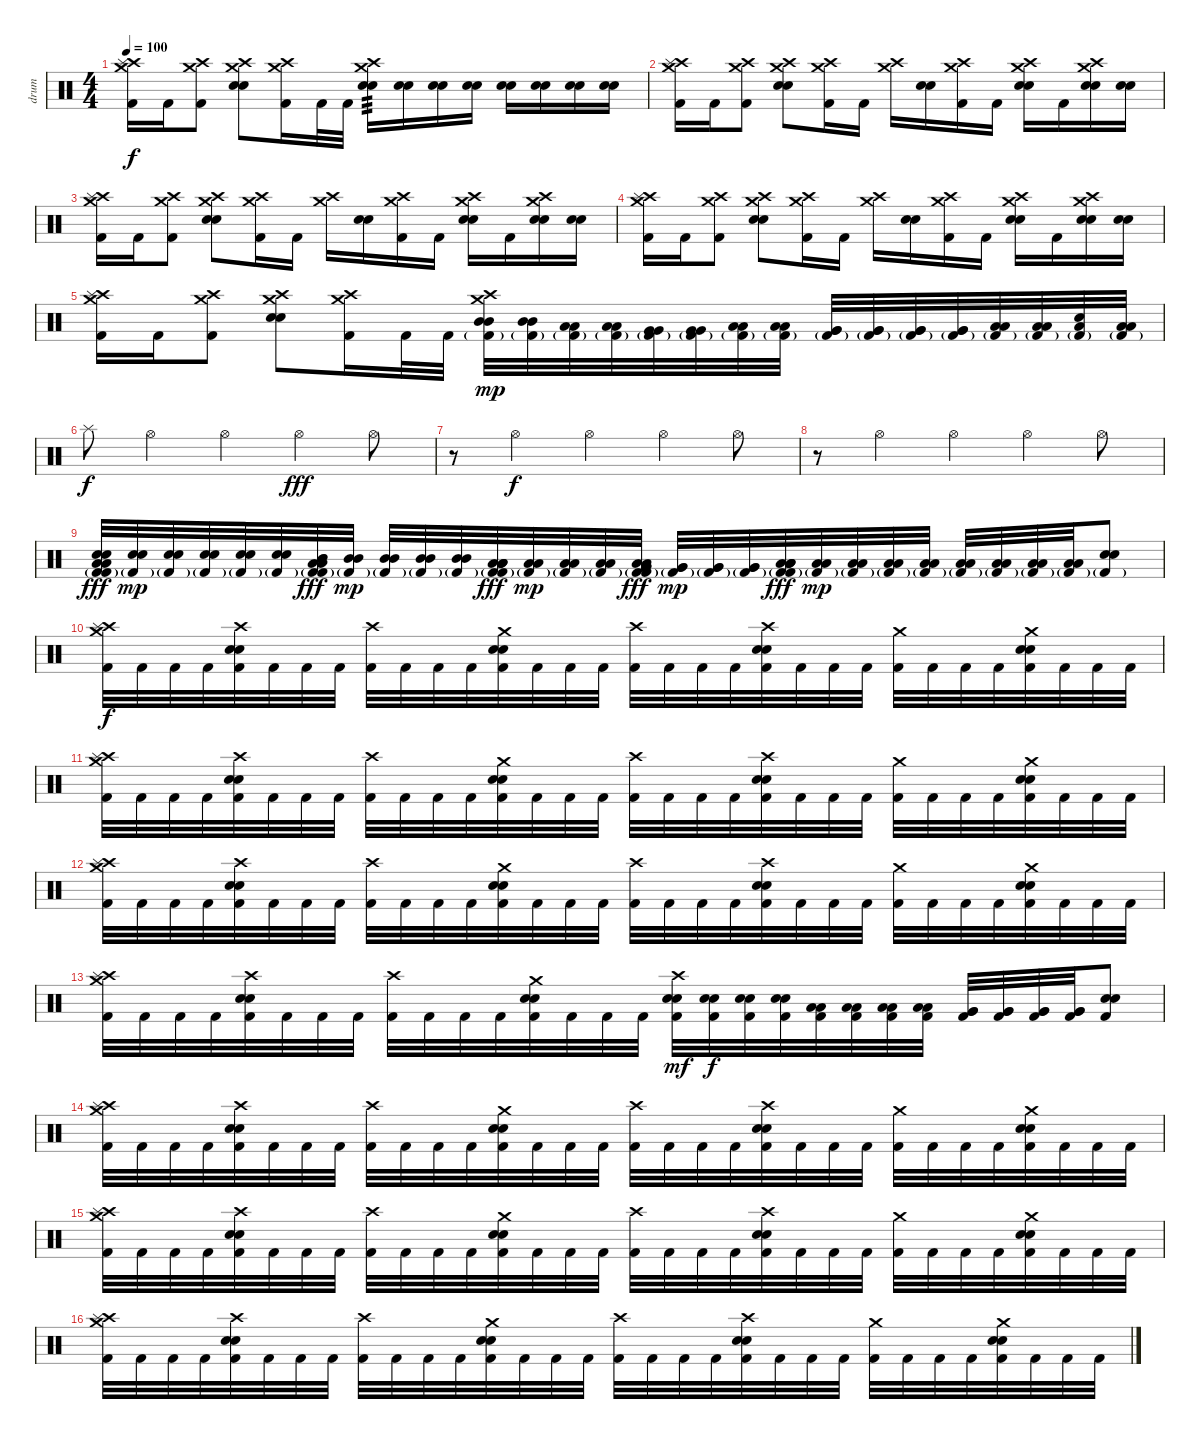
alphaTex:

\track ("drum" "drum") {instrument percussion}
\staff {score}
\articulation defaults
\ts (4 4)
\tempo 100
\clef neutral
\ks c
("Crash medium (hit)" "Crash high (hit)" "Splash (hit)" "Kick (hit) 2").16{dy f} "Kick (hit) 2".16 ("Crash medium (hit)" "Crash high (hit)" "Kick (hit) 2").8 ("Crash medium (hit)" "Crash high (hit)" "Electric Snare (hit)" "Snare (hit) 2").8 ("Crash medium (hit)" "Crash high (hit)" "Kick (hit) 2").16 "Kick (hit) 2".32 "Kick (hit) 2".32 ("Crash medium (hit)" "Crash high (hit)" "Electric Snare (hit)" "Snare (hit) 2").16{tp 3} ("Electric Snare (hit)" "Snare (hit) 2").16 ("Electric Snare (hit)" "Snare (hit) 2").16 ("Electric Snare (hit)" "Snare (hit) 2").16 ("Electric Snare (hit)" "Snare (hit) 2").16 ("Electric Snare (hit)" "Snare (hit) 2").16 ("Electric Snare (hit)" "Snare (hit) 2").16 ("Electric Snare (hit)" "Snare (hit) 2").16 |
("Crash medium (hit)" "Crash high (hit)" "Splash (hit)" "Kick (hit) 2").16 "Kick (hit) 2".16 ("Crash medium (hit)" "Crash high (hit)" "Kick (hit) 2").8 ("Crash medium (hit)" "Crash high (hit)" "Electric Snare (hit)" "Snare (hit) 2").8 ("Crash medium (hit)" "Crash high (hit)" "Kick (hit) 2").16 "Kick (hit) 2".16 ("Crash medium (hit)" "Crash high (hit)").16 ("Electric Snare (hit)" "Snare (hit) 2").16 ("Crash medium (hit)" "Crash high (hit)" "Kick (hit) 2").16 "Kick (hit) 2".16 ("Crash medium (hit)" "Crash high (hit)" "Electric Snare (hit)" "Snare (hit) 2").16 "Kick (hit) 2".16 ("Crash medium (hit)" "Crash high (hit)" "Electric Snare (hit)" "Snare (hit) 2").16 ("Electric Snare (hit)" "Snare (hit) 2").16 |
("Crash medium (hit)" "Crash high (hit)" "Splash (hit)" "Kick (hit) 2").16 "Kick (hit) 2".16 ("Crash medium (hit)" "Crash high (hit)" "Kick (hit) 2").8 ("Crash medium (hit)" "Crash high (hit)" "Electric Snare (hit)" "Snare (hit) 2").8 ("Crash medium (hit)" "Crash high (hit)" "Kick (hit) 2").16 "Kick (hit) 2".16 ("Crash medium (hit)" "Crash high (hit)").16 ("Electric Snare (hit)" "Snare (hit) 2").16 ("Crash medium (hit)" "Crash high (hit)" "Kick (hit) 2").16 "Kick (hit) 2".16 ("Crash medium (hit)" "Crash high (hit)" "Electric Snare (hit)" "Snare (hit) 2").16 "Kick (hit) 2".16 ("Crash medium (hit)" "Crash high (hit)" "Electric Snare (hit)" "Snare (hit) 2").16 ("Electric Snare (hit)" "Snare (hit) 2").16 |
("Crash medium (hit)" "Crash high (hit)" "Splash (hit)" "Kick (hit) 2").16 "Kick (hit) 2".16 ("Crash medium (hit)" "Crash high (hit)" "Kick (hit) 2").8 ("Crash medium (hit)" "Crash high (hit)" "Electric Snare (hit)" "Snare (hit) 2").8 ("Crash medium (hit)" "Crash high (hit)" "Kick (hit) 2").16 "Kick (hit) 2".16 ("Crash medium (hit)" "Crash high (hit)").16 ("Electric Snare (hit)" "Snare (hit) 2").16 ("Crash medium (hit)" "Crash high (hit)" "Kick (hit) 2").16 "Kick (hit) 2".16 ("Crash medium (hit)" "Crash high (hit)" "Electric Snare (hit)" "Snare (hit) 2").16 "Kick (hit) 2".16 ("Crash medium (hit)" "Crash high (hit)" "Electric Snare (hit)" "Snare (hit) 2").16 ("Electric Snare (hit)" "Snare (hit) 2").16 |
("Crash medium (hit)" "Crash high (hit)" "Splash (hit)" "Kick (hit) 2").16 "Kick (hit) 2".16 ("Crash medium (hit)" "Crash high (hit)" "Kick (hit) 2").8 ("Crash medium (hit)" "Crash high (hit)" "Electric Snare (hit)" "Snare (hit) 2").8 ("Crash medium (hit)" "Crash high (hit)" "Kick (hit) 2").16 "Kick (hit) 2".32 "Kick (hit) 2".32 ("Crash medium (hit)" "Mid Tom (hit)" "Mid Tom (hit)" "Crash high (hit)" "Kick (hit) 2"{g}).32{dy mp} ("Mid Tom (hit)" "Mid Tom (hit)" "Kick (hit) 2"{g}).32 ("Low Tom (hit)" "Low Tom (hit)" "Kick (hit) 2"{g}).32 ("Low Tom (hit)" "Low Tom (hit)" "Kick (hit) 2"{g}).32 ("Very Low Tom (hit)" "Very Low Tom (hit)" "Kick (hit) 2"{g}).32 ("Very Low Tom (hit)" "Very Low Tom (hit)" "Kick (hit) 2"{g}).32 ("Low Tom (hit)" "Low Tom (hit)" "Kick (hit) 2"{g}).32 ("Low Tom (hit)" "Low Tom (hit)" "Kick (hit) 2"{g}).32 ("Very Low Tom (hit)" "Very Low Tom (hit)" "Kick (hit) 2"{g}).32 ("Very Low Tom (hit)" "Very Low Tom (hit)" "Kick (hit) 2"{g}).32 ("Very Low Tom (hit)" "Very Low Tom (hit)" "Kick (hit) 2"{g}).32 ("Very Low Tom (hit)" "Very Low Tom (hit)" "Kick (hit) 2"{g}).32 ("Low Floor Tom (hit)" "Low Floor Tom (hit)" "Kick (hit) 2"{g}).32 ("Low Floor Tom (hit)" "Low Floor Tom (hit)" "Kick (hit) 2"{g}).32 ("Snare (hit)" "Low Floor Tom (hit)" "Kick (hit) 2"{g}).32 ("Low Floor Tom (hit)" "Low Floor Tom (hit)" "Kick (hit) 2"{g}).32 |
"Splash (hit)".8{dy f} "Hi-Hat (open)".4 "Hi-Hat (open)".4 "Hi-Hat (open)".4{dy fff} "Hi-Hat (open)".8 |
r.8 "Hi-Hat (open)".4{dy f} "Hi-Hat (open)".4 "Hi-Hat (open)".4 "Hi-Hat (open)".8 |
r.8 "Hi-Hat (open)".4 "Hi-Hat (open)".4 "Hi-Hat (open)".4 "Hi-Hat (open)".8 |
("Low Floor Tom (hit)" "Low Tom (hit)" "Electric Snare (hit)" "Snare (hit) 2" "Kick (hit) 2"{g} "Kick (hit) 2").32{dy fff} ("Electric Snare (hit)" "Snare (hit) 2" "Kick (hit) 2"{g}).32{dy mp} ("Electric Snare (hit)" "Snare (hit) 2" "Kick (hit) 2"{g}).32 ("Electric Snare (hit)" "Snare (hit) 2" "Kick (hit) 2"{g}).32 ("Electric Snare (hit)" "Snare (hit) 2" "Kick (hit) 2"{g}).32 ("Electric Snare (hit)" "Snare (hit) 2" "Kick (hit) 2"{g}).32 ("Low Floor Tom (hit)" "Low Tom (hit)" "Mid Tom (hit)" "Mid Tom (hit)" "Kick (hit) 2"{g} "Kick (hit) 2").32{dy fff} ("Mid Tom (hit)" "Mid Tom (hit)" "Kick (hit) 2"{g}).32{dy mp} ("Mid Tom (hit)" "Mid Tom (hit)" "Kick (hit) 2"{g}).32 ("Mid Tom (hit)" "Mid Tom (hit)" "Kick (hit) 2"{g}).32 ("Mid Tom (hit)" "Mid Tom (hit)" "Kick (hit) 2"{g}).32 ("Low Floor Tom (hit)" "Low Tom (hit)" "Low Tom (hit)" "Low Tom (hit)" "Kick (hit) 2"{g} "Kick (hit) 2").32{dy fff} ("Low Tom (hit)" "Low Tom (hit)" "Kick (hit) 2"{g}).32{dy mp} ("Low Tom (hit)" "Low Tom (hit)" "Kick (hit) 2"{g}).32 ("Low Tom (hit)" "Low Tom (hit)" "Kick (hit) 2"{g}).32 ("Low Floor Tom (hit)" "Low Tom (hit)" "Very Low Tom (hit)" "Very Low Tom (hit)" "Kick (hit) 2"{g} "Kick (hit) 2").32{dy fff} ("Very Low Tom (hit)" "Very Low Tom (hit)" "Kick (hit) 2"{g}).32{dy mp} ("Very Low Tom (hit)" "Very Low Tom (hit)" "Kick (hit) 2"{g}).32 ("Very Low Tom (hit)" "Very Low Tom (hit)" "Kick (hit) 2"{g}).32 ("Low Tom (hit)" "Low Tom (hit)" "Low Floor Tom (hit)" "Low Floor Tom (hit)" "Kick (hit) 2"{g} "Kick (hit) 2").32{dy fff} ("Low Floor Tom (hit)" "Low Floor Tom (hit)" "Kick (hit) 2"{g}).32{dy mp} ("Low Floor Tom (hit)" "Low Floor Tom (hit)" "Kick (hit) 2"{g}).32 ("Low Floor Tom (hit)" "Low Floor Tom (hit)" "Kick (hit) 2"{g}).32 ("Low Floor Tom (hit)" "Low Floor Tom (hit)" "Kick (hit) 2"{g}).32 ("Low Floor Tom (hit)" "Low Floor Tom (hit)" "Kick (hit) 2"{g}).32 ("Low Floor Tom (hit)" "Low Floor Tom (hit)" "Kick (hit) 2"{g}).32 ("Low Floor Tom (hit)" "Low Floor Tom (hit)" "Kick (hit) 2"{g}).32 ("Low Floor Tom (hit)" "Low Floor Tom (hit)" "Kick (hit) 2"{g}).32 ("Electric Snare (hit)" "Snare (hit) 2" "Kick (hit) 2"{g}).8{bd 60} |
("Crash medium (hit)" "Crash high (hit)" "Splash (hit)" "Kick (hit) 2").32{dy f} "Kick (hit) 2".32 "Kick (hit) 2".32 "Kick (hit) 2".32 ("Crash high (hit)" "Electric Snare (hit)" "Snare (hit) 2" "Kick (hit) 2").32 "Kick (hit) 2".32 "Kick (hit) 2".32 "Kick (hit) 2".32 ("Crash high (hit)" "Kick (hit) 2").32 "Kick (hit) 2".32 "Kick (hit) 2".32 "Kick (hit) 2".32 ("Crash medium (hit)" "Electric Snare (hit)" "Snare (hit) 2" "Kick (hit) 2").32 "Kick (hit) 2".32 "Kick (hit) 2".32 "Kick (hit) 2".32 ("Crash high (hit)" "Kick (hit) 2").32 "Kick (hit) 2".32 "Kick (hit) 2".32 "Kick (hit) 2".32 ("Crash high (hit)" "Electric Snare (hit)" "Snare (hit) 2" "Kick (hit) 2").32 "Kick (hit) 2".32 "Kick (hit) 2".32 "Kick (hit) 2".32 ("Crash medium (hit)" "Kick (hit) 2").32 "Kick (hit) 2".32 "Kick (hit) 2".32 "Kick (hit) 2".32 ("Crash medium (hit)" "Electric Snare (hit)" "Snare (hit) 2" "Kick (hit) 2").32 "Kick (hit) 2".32 "Kick (hit) 2".32 "Kick (hit) 2".32 |
("Crash medium (hit)" "Crash high (hit)" "Splash (hit)" "Kick (hit) 2").32 "Kick (hit) 2".32 "Kick (hit) 2".32 "Kick (hit) 2".32 ("Crash high (hit)" "Electric Snare (hit)" "Snare (hit) 2" "Kick (hit) 2").32 "Kick (hit) 2".32 "Kick (hit) 2".32 "Kick (hit) 2".32 ("Crash high (hit)" "Kick (hit) 2").32 "Kick (hit) 2".32 "Kick (hit) 2".32 "Kick (hit) 2".32 ("Crash medium (hit)" "Electric Snare (hit)" "Snare (hit) 2" "Kick (hit) 2").32 "Kick (hit) 2".32 "Kick (hit) 2".32 "Kick (hit) 2".32 ("Crash high (hit)" "Kick (hit) 2").32 "Kick (hit) 2".32 "Kick (hit) 2".32 "Kick (hit) 2".32 ("Crash high (hit)" "Electric Snare (hit)" "Snare (hit) 2" "Kick (hit) 2").32 "Kick (hit) 2".32 "Kick (hit) 2".32 "Kick (hit) 2".32 ("Crash medium (hit)" "Kick (hit) 2").32 "Kick (hit) 2".32 "Kick (hit) 2".32 "Kick (hit) 2".32 ("Crash medium (hit)" "Electric Snare (hit)" "Snare (hit) 2" "Kick (hit) 2").32 "Kick (hit) 2".32 "Kick (hit) 2".32 "Kick (hit) 2".32 |
("Crash medium (hit)" "Crash high (hit)" "Splash (hit)" "Kick (hit) 2").32 "Kick (hit) 2".32 "Kick (hit) 2".32 "Kick (hit) 2".32 ("Crash high (hit)" "Electric Snare (hit)" "Snare (hit) 2" "Kick (hit) 2").32 "Kick (hit) 2".32 "Kick (hit) 2".32 "Kick (hit) 2".32 ("Crash high (hit)" "Kick (hit) 2").32 "Kick (hit) 2".32 "Kick (hit) 2".32 "Kick (hit) 2".32 ("Crash medium (hit)" "Electric Snare (hit)" "Snare (hit) 2" "Kick (hit) 2").32 "Kick (hit) 2".32 "Kick (hit) 2".32 "Kick (hit) 2".32 ("Crash high (hit)" "Kick (hit) 2").32 "Kick (hit) 2".32 "Kick (hit) 2".32 "Kick (hit) 2".32 ("Crash high (hit)" "Electric Snare (hit)" "Snare (hit) 2" "Kick (hit) 2").32 "Kick (hit) 2".32 "Kick (hit) 2".32 "Kick (hit) 2".32 ("Crash medium (hit)" "Kick (hit) 2").32 "Kick (hit) 2".32 "Kick (hit) 2".32 "Kick (hit) 2".32 ("Crash medium (hit)" "Electric Snare (hit)" "Snare (hit) 2" "Kick (hit) 2").32 "Kick (hit) 2".32 "Kick (hit) 2".32 "Kick (hit) 2".32 |
("Crash medium (hit)" "Crash high (hit)" "Splash (hit)" "Kick (hit) 2").32 "Kick (hit) 2".32 "Kick (hit) 2".32 "Kick (hit) 2".32 ("Crash high (hit)" "Electric Snare (hit)" "Snare (hit) 2" "Kick (hit) 2").32 "Kick (hit) 2".32 "Kick (hit) 2".32 "Kick (hit) 2".32 ("Crash high (hit)" "Kick (hit) 2").32 "Kick (hit) 2".32 "Kick (hit) 2".32 "Kick (hit) 2".32 ("Crash medium (hit)" "Electric Snare (hit)" "Snare (hit) 2" "Kick (hit) 2").32 "Kick (hit) 2".32 "Kick (hit) 2".32 "Kick (hit) 2".32 ("Crash high (hit)" "Electric Snare (hit)" "Snare (hit) 2" "Kick (hit) 2").32{dy mf} ("Electric Snare (hit)" "Snare (hit) 2" "Kick (hit) 2").32{dy f} ("Electric Snare (hit)" "Snare (hit) 2" "Kick (hit) 2").32 ("Electric Snare (hit)" "Snare (hit) 2" "Kick (hit) 2").32 ("Low Tom (hit)" "Low Tom (hit)" "Kick (hit) 2").32 ("Low Tom (hit)" "Low Tom (hit)" "Kick (hit) 2").32 ("Low Tom (hit)" "Low Tom (hit)" "Kick (hit) 2").32 ("Low Tom (hit)" "Low Tom (hit)" "Kick (hit) 2").32 ("Very Low Tom (hit)" "Very Low Tom (hit)" "Kick (hit) 2").32 ("Very Low Tom (hit)" "Very Low Tom (hit)" "Kick (hit) 2").32 ("Very Low Tom (hit)" "Very Low Tom (hit)" "Kick (hit) 2").32 ("Very Low Tom (hit)" "Very Low Tom (hit)" "Kick (hit) 2").32 ("Electric Snare (hit)" "Snare (hit) 2" "Kick (hit) 2").8{bd 60} |
("Crash medium (hit)" "Crash high (hit)" "Splash (hit)" "Kick (hit) 2").32 "Kick (hit) 2".32 "Kick (hit) 2".32 "Kick (hit) 2".32 ("Crash high (hit)" "Electric Snare (hit)" "Snare (hit) 2" "Kick (hit) 2").32 "Kick (hit) 2".32 "Kick (hit) 2".32 "Kick (hit) 2".32 ("Crash high (hit)" "Kick (hit) 2").32 "Kick (hit) 2".32 "Kick (hit) 2".32 "Kick (hit) 2".32 ("Crash medium (hit)" "Electric Snare (hit)" "Snare (hit) 2" "Kick (hit) 2").32 "Kick (hit) 2".32 "Kick (hit) 2".32 "Kick (hit) 2".32 ("Crash high (hit)" "Kick (hit) 2").32 "Kick (hit) 2".32 "Kick (hit) 2".32 "Kick (hit) 2".32 ("Crash high (hit)" "Electric Snare (hit)" "Snare (hit) 2" "Kick (hit) 2").32 "Kick (hit) 2".32 "Kick (hit) 2".32 "Kick (hit) 2".32 ("Crash medium (hit)" "Kick (hit) 2").32 "Kick (hit) 2".32 "Kick (hit) 2".32 "Kick (hit) 2".32 ("Crash medium (hit)" "Electric Snare (hit)" "Snare (hit) 2" "Kick (hit) 2").32 "Kick (hit) 2".32 "Kick (hit) 2".32 "Kick (hit) 2".32 |
("Crash medium (hit)" "Crash high (hit)" "Splash (hit)" "Kick (hit) 2").32 "Kick (hit) 2".32 "Kick (hit) 2".32 "Kick (hit) 2".32 ("Crash high (hit)" "Electric Snare (hit)" "Snare (hit) 2" "Kick (hit) 2").32 "Kick (hit) 2".32 "Kick (hit) 2".32 "Kick (hit) 2".32 ("Crash high (hit)" "Kick (hit) 2").32 "Kick (hit) 2".32 "Kick (hit) 2".32 "Kick (hit) 2".32 ("Crash medium (hit)" "Electric Snare (hit)" "Snare (hit) 2" "Kick (hit) 2").32 "Kick (hit) 2".32 "Kick (hit) 2".32 "Kick (hit) 2".32 ("Crash high (hit)" "Kick (hit) 2").32 "Kick (hit) 2".32 "Kick (hit) 2".32 "Kick (hit) 2".32 ("Crash high (hit)" "Electric Snare (hit)" "Snare (hit) 2" "Kick (hit) 2").32 "Kick (hit) 2".32 "Kick (hit) 2".32 "Kick (hit) 2".32 ("Crash medium (hit)" "Kick (hit) 2").32 "Kick (hit) 2".32 "Kick (hit) 2".32 "Kick (hit) 2".32 ("Crash medium (hit)" "Electric Snare (hit)" "Snare (hit) 2" "Kick (hit) 2").32 "Kick (hit) 2".32 "Kick (hit) 2".32 "Kick (hit) 2".32 |
("Crash medium (hit)" "Crash high (hit)" "Splash (hit)" "Kick (hit) 2").32 "Kick (hit) 2".32 "Kick (hit) 2".32 "Kick (hit) 2".32 ("Crash high (hit)" "Electric Snare (hit)" "Snare (hit) 2" "Kick (hit) 2").32 "Kick (hit) 2".32 "Kick (hit) 2".32 "Kick (hit) 2".32 ("Crash high (hit)" "Kick (hit) 2").32 "Kick (hit) 2".32 "Kick (hit) 2".32 "Kick (hit) 2".32 ("Crash medium (hit)" "Electric Snare (hit)" "Snare (hit) 2" "Kick (hit) 2").32 "Kick (hit) 2".32 "Kick (hit) 2".32 "Kick (hit) 2".32 ("Crash high (hit)" "Kick (hit) 2").32 "Kick (hit) 2".32 "Kick (hit) 2".32 "Kick (hit) 2".32 ("Crash high (hit)" "Electric Snare (hit)" "Snare (hit) 2" "Kick (hit) 2").32 "Kick (hit) 2".32 "Kick (hit) 2".32 "Kick (hit) 2".32 ("Crash medium (hit)" "Kick (hit) 2").32 "Kick (hit) 2".32 "Kick (hit) 2".32 "Kick (hit) 2".32 ("Crash medium (hit)" "Electric Snare (hit)" "Snare (hit) 2" "Kick (hit) 2").32 "Kick (hit) 2".32 "Kick (hit) 2".32 "Kick (hit) 2".32
